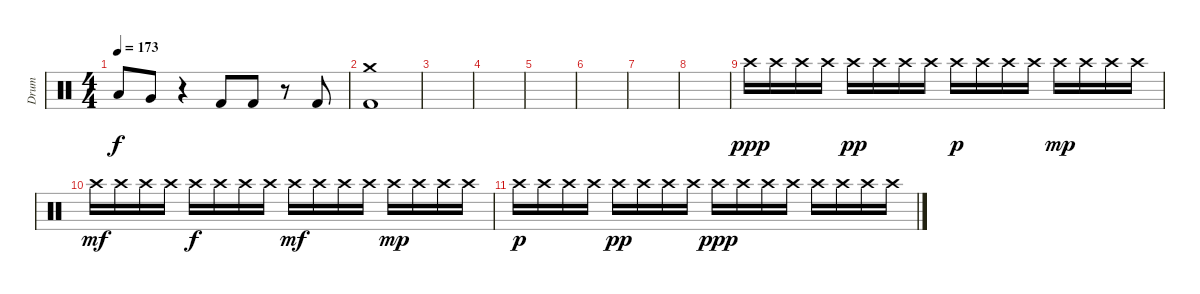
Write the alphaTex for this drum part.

\track ("Drum" "Drum") {instrument percussion}
\staff {score}
\articulation defaults
\ts (4 4)
\tempo 173
\clef neutral
\ks c "Low Tom (hit)".8{dy f} "Very Low Tom (hit)".8
r.4 "Kick (hit) 2".8 "Kick (hit) 2".8 r.8 "Kick (hit) 2".8 |
("Crash medium (hit)" "Kick (hit) 2").1 |
|
|
|
|
|
|
"Crash high (hit)".16{dy ppp} "Crash high (hit)".16 "Crash high (hit)".16 "Crash high (hit)".16 "Crash high (hit)".16{dy pp} "Crash high (hit)".16 "Crash high (hit)".16 "Crash high (hit)".16 "Crash high (hit)".16{dy p} "Crash high (hit)".16 "Crash high (hit)".16 "Crash high (hit)".16 "Crash high (hit)".16{dy mp} "Crash high (hit)".16 "Crash high (hit)".16 "Crash high (hit)".16 |
"Crash high (hit)".16{dy mf} "Crash high (hit)".16 "Crash high (hit)".16 "Crash high (hit)".16 "Crash high (hit)".16{dy f} "Crash high (hit)".16 "Crash high (hit)".16 "Crash high (hit)".16 "Crash high (hit)".16{dy mf} "Crash high (hit)".16 "Crash high (hit)".16 "Crash high (hit)".16 "Crash high (hit)".16{dy mp} "Crash high (hit)".16 "Crash high (hit)".16 "Crash high (hit)".16 |
"Crash high (hit)".16{dy p} "Crash high (hit)".16 "Crash high (hit)".16 "Crash high (hit)".16 "Crash high (hit)".16{dy pp} "Crash high (hit)".16 "Crash high (hit)".16 "Crash high (hit)".16 "Crash high (hit)".16{dy ppp} "Crash high (hit)".16 "Crash high (hit)".16 "Crash high (hit)".16 "Crash high (hit)".16 "Crash high (hit)".16 "Crash high (hit)".16 "Crash high (hit)".16
